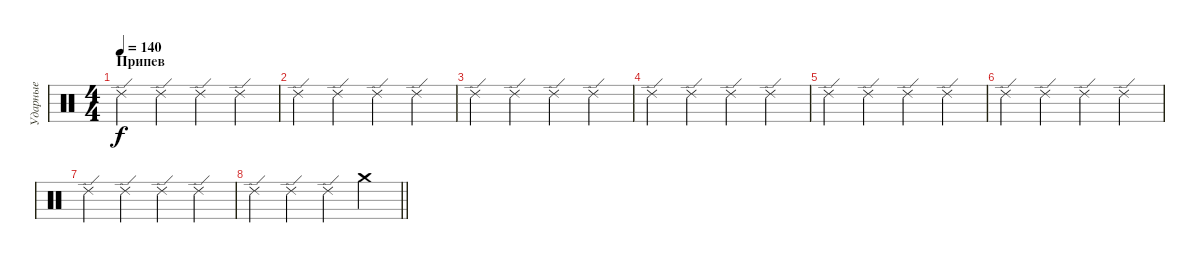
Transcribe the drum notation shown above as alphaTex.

\track ("Ударные" "Ударные") {instrument percussion}
\staff {score}
\articulation defaults
\ts (4 4)
\section ("" "Припев")
\tempo 140
\clef neutral
\ks c "Ride (edge) 2".4{dy f} "Ride (edge) 2".4 "Ride (edge) 2".4 "Ride (edge) 2".4
|
"Ride (edge) 2".4 "Ride (edge) 2".4 "Ride (edge) 2".4 "Ride (edge) 2".4 |
"Ride (edge) 2".4 "Ride (edge) 2".4 "Ride (edge) 2".4 "Ride (edge) 2".4 |
"Ride (edge) 2".4 "Ride (edge) 2".4 "Ride (edge) 2".4 "Ride (edge) 2".4 |
"Ride (edge) 2".4 "Ride (edge) 2".4 "Ride (edge) 2".4 "Ride (edge) 2".4 |
"Ride (edge) 2".4 "Ride (edge) 2".4 "Ride (edge) 2".4 "Ride (edge) 2".4 |
"Ride (edge) 2".4 "Ride (edge) 2".4 "Ride (edge) 2".4 "Ride (edge) 2".4 |
\barLineRight lightlight "Ride (edge) 2".4 "Ride (edge) 2".4 "Ride (edge) 2".4 "Crash medium (hit)".4
